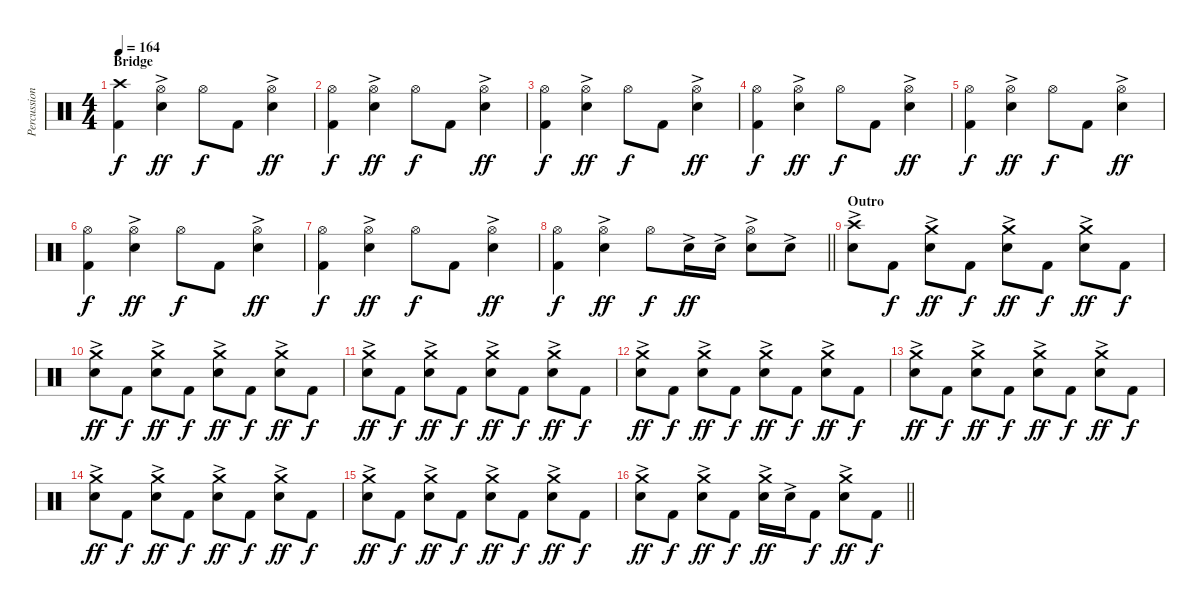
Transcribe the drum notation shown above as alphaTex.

\track ("Percussion" "Percussion") {instrument percussion}
\staff {score}
\articulation defaults
\ts (4 4)
\section ("" "Bridge")
\tempo 164
\clef neutral
\ks c
("Crash high (hit)" "Kick (hit) 2").4{dy f} ("Hi-Hat (open)" "Electric Snare (hit)"{ac}).4{dy ff} "Hi-Hat (open)".8{dy f} "Kick (hit) 2".8 ("Hi-Hat (open)" "Electric Snare (hit)"{ac}).4{dy ff} |
("Hi-Hat (open)" "Kick (hit) 2").4{dy f} ("Hi-Hat (open)" "Electric Snare (hit)"{ac}).4{dy ff} "Hi-Hat (open)".8{dy f} "Kick (hit) 2".8 ("Hi-Hat (open)" "Electric Snare (hit)"{ac}).4{dy ff} |
("Hi-Hat (open)" "Kick (hit) 2").4{dy f} ("Hi-Hat (open)" "Electric Snare (hit)"{ac}).4{dy ff} "Hi-Hat (open)".8{dy f} "Kick (hit) 2".8 ("Hi-Hat (open)" "Electric Snare (hit)"{ac}).4{dy ff} |
("Hi-Hat (open)" "Kick (hit) 2").4{dy f} ("Hi-Hat (open)" "Electric Snare (hit)"{ac}).4{dy ff} "Hi-Hat (open)".8{dy f} "Kick (hit) 2".8 ("Hi-Hat (open)" "Electric Snare (hit)"{ac}).4{dy ff} |
("Hi-Hat (open)" "Kick (hit) 2").4{dy f} ("Hi-Hat (open)" "Electric Snare (hit)"{ac}).4{dy ff} "Hi-Hat (open)".8{dy f} "Kick (hit) 2".8 ("Hi-Hat (open)" "Electric Snare (hit)"{ac}).4{dy ff} |
("Hi-Hat (open)" "Kick (hit) 2").4{dy f} ("Hi-Hat (open)" "Electric Snare (hit)"{ac}).4{dy ff} "Hi-Hat (open)".8{dy f} "Kick (hit) 2".8 ("Hi-Hat (open)" "Electric Snare (hit)"{ac}).4{dy ff} |
("Hi-Hat (open)" "Kick (hit) 2").4{dy f} ("Hi-Hat (open)" "Electric Snare (hit)"{ac}).4{dy ff} "Hi-Hat (open)".8{dy f} "Kick (hit) 2".8 ("Hi-Hat (open)" "Electric Snare (hit)"{ac}).4{dy ff} |
\barLineRight lightlight
("Hi-Hat (open)" "Kick (hit) 2").4{dy f} ("Hi-Hat (open)" "Electric Snare (hit)"{ac}).4{dy ff} "Hi-Hat (open)".8{dy f} "Electric Snare (hit)"{ac}.16{dy ff} "Electric Snare (hit)"{ac}.16 ("Hi-Hat (open)" "Electric Snare (hit)"{ac}).8 "Electric Snare (hit)"{ac}.8 |
\section ("" "Outro")
("Crash high (hit)" "Electric Snare (hit)"{ac}).8 "Kick (hit) 2".8{dy f} ("Crash medium (hit)" "Electric Snare (hit)"{ac}).8{dy ff} "Kick (hit) 2".8{dy f} ("Crash medium (hit)" "Electric Snare (hit)"{ac}).8{dy ff} "Kick (hit) 2".8{dy f} ("Crash medium (hit)" "Electric Snare (hit)"{ac}).8{dy ff} "Kick (hit) 2".8{dy f} |
("Crash medium (hit)" "Electric Snare (hit)"{ac}).8{dy ff} "Kick (hit) 2".8{dy f} ("Crash medium (hit)" "Electric Snare (hit)"{ac}).8{dy ff} "Kick (hit) 2".8{dy f} ("Crash medium (hit)" "Electric Snare (hit)"{ac}).8{dy ff} "Kick (hit) 2".8{dy f} ("Crash medium (hit)" "Electric Snare (hit)"{ac}).8{dy ff} "Kick (hit) 2".8{dy f} |
("Crash medium (hit)" "Electric Snare (hit)"{ac}).8{dy ff} "Kick (hit) 2".8{dy f} ("Crash medium (hit)" "Electric Snare (hit)"{ac}).8{dy ff} "Kick (hit) 2".8{dy f} ("Crash medium (hit)" "Electric Snare (hit)"{ac}).8{dy ff} "Kick (hit) 2".8{dy f} ("Crash medium (hit)" "Electric Snare (hit)"{ac}).8{dy ff} "Kick (hit) 2".8{dy f} |
("Crash medium (hit)" "Electric Snare (hit)"{ac}).8{dy ff} "Kick (hit) 2".8{dy f} ("Crash medium (hit)" "Electric Snare (hit)"{ac}).8{dy ff} "Kick (hit) 2".8{dy f} ("Crash medium (hit)" "Electric Snare (hit)"{ac}).8{dy ff} "Kick (hit) 2".8{dy f} ("Crash medium (hit)" "Electric Snare (hit)"{ac}).8{dy ff} "Kick (hit) 2".8{dy f} |
("Crash medium (hit)" "Electric Snare (hit)"{ac}).8{dy ff} "Kick (hit) 2".8{dy f} ("Crash medium (hit)" "Electric Snare (hit)"{ac}).8{dy ff} "Kick (hit) 2".8{dy f} ("Crash medium (hit)" "Electric Snare (hit)"{ac}).8{dy ff} "Kick (hit) 2".8{dy f} ("Crash medium (hit)" "Electric Snare (hit)"{ac}).8{dy ff} "Kick (hit) 2".8{dy f} |
("Crash medium (hit)" "Electric Snare (hit)"{ac}).8{dy ff} "Kick (hit) 2".8{dy f} ("Crash medium (hit)" "Electric Snare (hit)"{ac}).8{dy ff} "Kick (hit) 2".8{dy f} ("Crash medium (hit)" "Electric Snare (hit)"{ac}).8{dy ff} "Kick (hit) 2".8{dy f} ("Crash medium (hit)" "Electric Snare (hit)"{ac}).8{dy ff} "Kick (hit) 2".8{dy f} |
("Crash medium (hit)" "Electric Snare (hit)"{ac}).8{dy ff} "Kick (hit) 2".8{dy f} ("Crash medium (hit)" "Electric Snare (hit)"{ac}).8{dy ff} "Kick (hit) 2".8{dy f} ("Crash medium (hit)" "Electric Snare (hit)"{ac}).8{dy ff} "Kick (hit) 2".8{dy f} ("Crash medium (hit)" "Electric Snare (hit)"{ac}).8{dy ff} "Kick (hit) 2".8{dy f} |
\barLineRight lightlight
("Crash medium (hit)" "Electric Snare (hit)"{ac}).8{dy ff} "Kick (hit) 2".8{dy f} ("Crash medium (hit)" "Electric Snare (hit)"{ac}).8{dy ff} "Kick (hit) 2".8{dy f} ("Crash medium (hit)" "Electric Snare (hit)"{ac}).16{dy ff} "Electric Snare (hit)"{ac}.16 "Kick (hit) 2".8{dy f} ("Crash medium (hit)" "Electric Snare (hit)"{ac}).8{dy ff} "Kick (hit) 2".8{dy f}
